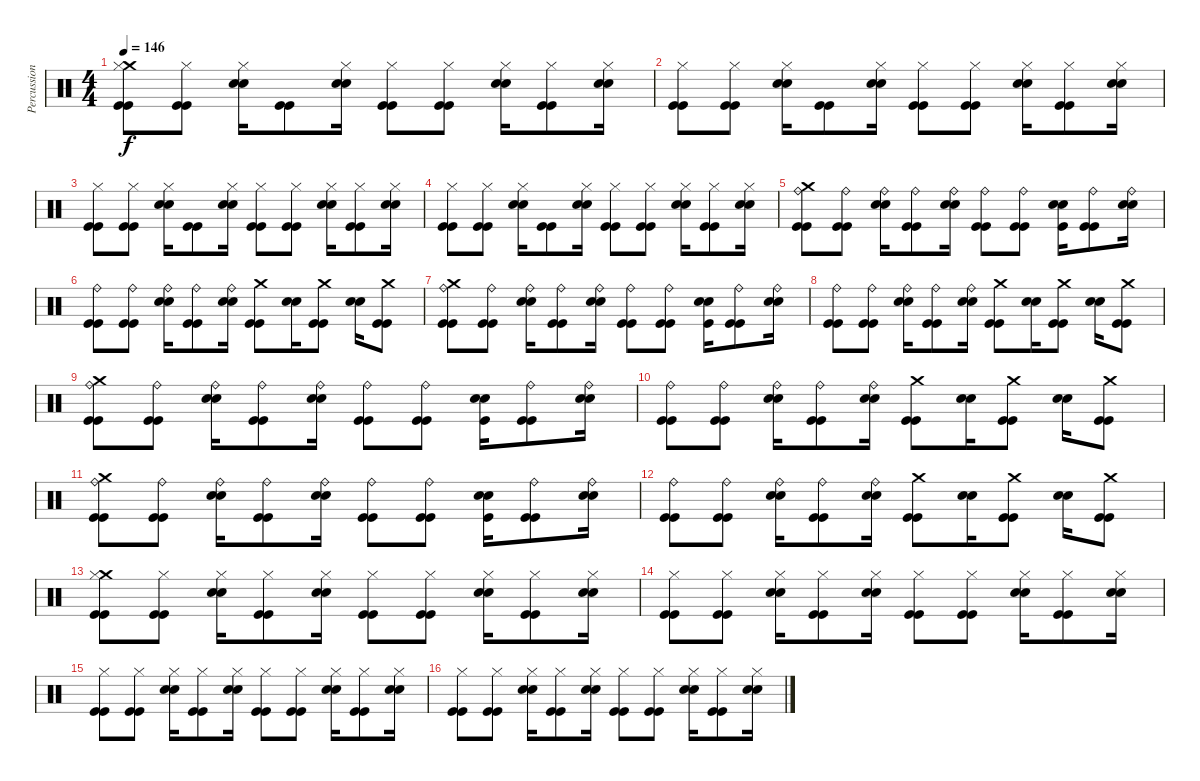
\track ("Percussion" "Percussion") {instrument percussion}
\staff {score}
\articulation defaults
\ts (4 4)
\tempo 146
\clef neutral
\ks c
("Crash medium (hit)" "Hi-Hat (closed)" "Kick (hit)" "Kick (hit)").8{dy f} ("Hi-Hat (closed)" "Kick (hit)" "Kick (hit)").8 ("Snare (hit) 2" "Snare (hit) 2" "Hi-Hat (closed)").16 ("Kick (hit)" "Kick (hit)").8 ("Snare (hit) 2" "Snare (hit) 2" "Hi-Hat (closed)").16 ("Hi-Hat (closed)" "Kick (hit)" "Kick (hit)").8 ("Hi-Hat (closed)" "Kick (hit)" "Kick (hit)").8 ("Snare (hit) 2" "Snare (hit) 2" "Hi-Hat (closed)").16 ("Hi-Hat (closed)" "Kick (hit)" "Kick (hit)").8 ("Snare (hit) 2" "Snare (hit) 2" "Hi-Hat (closed)").16 |
("Hi-Hat (closed)" "Kick (hit)" "Kick (hit)").8 ("Hi-Hat (closed)" "Kick (hit)" "Kick (hit)").8 ("Snare (hit) 2" "Snare (hit) 2" "Hi-Hat (closed)").16 ("Kick (hit)" "Kick (hit)").8 ("Snare (hit) 2" "Snare (hit) 2" "Hi-Hat (closed)").16 ("Hi-Hat (closed)" "Kick (hit)" "Kick (hit)").8 ("Hi-Hat (closed)" "Kick (hit)" "Kick (hit)").8 ("Snare (hit) 2" "Snare (hit) 2" "Hi-Hat (closed)").16 ("Hi-Hat (closed)" "Kick (hit)" "Kick (hit)").8 ("Snare (hit) 2" "Snare (hit) 2" "Hi-Hat (closed)").16 |
("Hi-Hat (closed)" "Kick (hit)" "Kick (hit)").8 ("Hi-Hat (closed)" "Kick (hit)" "Kick (hit)").8 ("Snare (hit) 2" "Snare (hit) 2" "Hi-Hat (closed)").16 ("Kick (hit)" "Kick (hit)").8 ("Snare (hit) 2" "Snare (hit) 2" "Hi-Hat (closed)").16 ("Hi-Hat (closed)" "Kick (hit)" "Kick (hit)").8 ("Hi-Hat (closed)" "Kick (hit)" "Kick (hit)").8 ("Snare (hit) 2" "Snare (hit) 2" "Hi-Hat (closed)").16 ("Hi-Hat (closed)" "Kick (hit)" "Kick (hit)").8 ("Snare (hit) 2" "Snare (hit) 2" "Hi-Hat (closed)").16 |
("Hi-Hat (closed)" "Kick (hit)" "Kick (hit)").8 ("Hi-Hat (closed)" "Kick (hit)" "Kick (hit)").8 ("Snare (hit) 2" "Snare (hit) 2" "Hi-Hat (closed)").16 ("Kick (hit)" "Kick (hit)").8 ("Snare (hit) 2" "Snare (hit) 2" "Hi-Hat (closed)").16 ("Hi-Hat (closed)" "Kick (hit)" "Kick (hit)").8 ("Hi-Hat (closed)" "Kick (hit)" "Kick (hit)").8 ("Snare (hit) 2" "Snare (hit) 2" "Hi-Hat (closed)").16 ("Hi-Hat (closed)" "Kick (hit)" "Kick (hit)").8 ("Snare (hit) 2" "Snare (hit) 2" "Hi-Hat (closed)").16 |
("Crash medium (hit)" "Ride (bell)" "Kick (hit)" "Kick (hit)").8 ("Ride (bell)" "Kick (hit)" "Kick (hit)").8 ("Snare (hit) 2" "Snare (hit) 2" "Ride (bell)").16 ("Ride (bell)" "Kick (hit)" "Kick (hit)").8 ("Snare (hit) 2" "Snare (hit) 2" "Ride (bell)").16 ("Ride (bell)" "Kick (hit)" "Kick (hit)").8 ("Ride (bell)" "Kick (hit)" "Kick (hit)").8 ("Snare (hit) 2" "Snare (hit) 2" "Kick (hit)").16 ("Ride (bell)" "Kick (hit)" "Kick (hit)").8 ("Snare (hit) 2" "Snare (hit) 2" "Ride (bell)").16 |
("Ride (bell)" "Kick (hit)" "Kick (hit)").8 ("Ride (bell)" "Kick (hit)" "Kick (hit)").8 ("Snare (hit) 2" "Snare (hit) 2" "Ride (bell)").16 ("Ride (bell)" "Kick (hit)" "Kick (hit)").8 ("Snare (hit) 2" "Snare (hit) 2" "Ride (bell)").16 ("Crash medium (hit)" "Kick (hit)" "Kick (hit)").8 ("Snare (hit) 2" "Snare (hit) 2").16 ("Crash medium (hit)" "Kick (hit)" "Kick (hit)").8 ("Snare (hit) 2" "Snare (hit) 2").16 ("Crash medium (hit)" "Kick (hit)" "Kick (hit)").8 |
("Crash medium (hit)" "Ride (bell)" "Kick (hit)" "Kick (hit)").8 ("Ride (bell)" "Kick (hit)" "Kick (hit)").8 ("Snare (hit) 2" "Snare (hit) 2" "Ride (bell)").16 ("Ride (bell)" "Kick (hit)" "Kick (hit)").8 ("Snare (hit) 2" "Snare (hit) 2" "Ride (bell)").16 ("Ride (bell)" "Kick (hit)" "Kick (hit)").8 ("Ride (bell)" "Kick (hit)" "Kick (hit)").8 ("Snare (hit) 2" "Snare (hit) 2" "Kick (hit)").16 ("Ride (bell)" "Kick (hit)" "Kick (hit)").8 ("Snare (hit) 2" "Snare (hit) 2" "Ride (bell)").16 |
("Ride (bell)" "Kick (hit)" "Kick (hit)").8 ("Ride (bell)" "Kick (hit)" "Kick (hit)").8 ("Snare (hit) 2" "Snare (hit) 2" "Ride (bell)").16 ("Ride (bell)" "Kick (hit)" "Kick (hit)").8 ("Snare (hit) 2" "Snare (hit) 2" "Ride (bell)").16 ("Crash medium (hit)" "Kick (hit)" "Kick (hit)").8 ("Snare (hit) 2" "Snare (hit) 2").16 ("Crash medium (hit)" "Kick (hit)" "Kick (hit)").8 ("Snare (hit) 2" "Snare (hit) 2").16 ("Crash medium (hit)" "Kick (hit)" "Kick (hit)").8 |
("Crash medium (hit)" "Ride (bell)" "Kick (hit)" "Kick (hit)").8 ("Ride (bell)" "Kick (hit)" "Kick (hit)").8 ("Snare (hit) 2" "Snare (hit) 2" "Ride (bell)").16 ("Ride (bell)" "Kick (hit)" "Kick (hit)").8 ("Snare (hit) 2" "Snare (hit) 2" "Ride (bell)").16 ("Ride (bell)" "Kick (hit)" "Kick (hit)").8 ("Ride (bell)" "Kick (hit)" "Kick (hit)").8 ("Snare (hit) 2" "Snare (hit) 2" "Kick (hit)").16 ("Ride (bell)" "Kick (hit)" "Kick (hit)").8 ("Snare (hit) 2" "Snare (hit) 2" "Ride (bell)").16 |
("Ride (bell)" "Kick (hit)" "Kick (hit)").8 ("Ride (bell)" "Kick (hit)" "Kick (hit)").8 ("Snare (hit) 2" "Snare (hit) 2" "Ride (bell)").16 ("Ride (bell)" "Kick (hit)" "Kick (hit)").8 ("Snare (hit) 2" "Snare (hit) 2" "Ride (bell)").16 ("Crash medium (hit)" "Kick (hit)" "Kick (hit)").8 ("Snare (hit) 2" "Snare (hit) 2").16 ("Crash medium (hit)" "Kick (hit)" "Kick (hit)").8 ("Snare (hit) 2" "Snare (hit) 2").16 ("Crash medium (hit)" "Kick (hit)" "Kick (hit)").8 |
("Crash medium (hit)" "Ride (bell)" "Kick (hit)" "Kick (hit)").8 ("Ride (bell)" "Kick (hit)" "Kick (hit)").8 ("Snare (hit) 2" "Snare (hit) 2" "Ride (bell)").16 ("Ride (bell)" "Kick (hit)" "Kick (hit)").8 ("Snare (hit) 2" "Snare (hit) 2" "Ride (bell)").16 ("Ride (bell)" "Kick (hit)" "Kick (hit)").8 ("Ride (bell)" "Kick (hit)" "Kick (hit)").8 ("Snare (hit) 2" "Snare (hit) 2" "Kick (hit)").16 ("Ride (bell)" "Kick (hit)" "Kick (hit)").8 ("Snare (hit) 2" "Snare (hit) 2" "Ride (bell)").16 |
("Ride (bell)" "Kick (hit)" "Kick (hit)").8 ("Ride (bell)" "Kick (hit)" "Kick (hit)").8 ("Snare (hit) 2" "Snare (hit) 2" "Ride (bell)").16 ("Ride (bell)" "Kick (hit)" "Kick (hit)").8 ("Snare (hit) 2" "Snare (hit) 2" "Ride (bell)").16 ("Crash medium (hit)" "Kick (hit)" "Kick (hit)").8 ("Snare (hit) 2" "Snare (hit) 2").16 ("Crash medium (hit)" "Kick (hit)" "Kick (hit)").8 ("Snare (hit) 2" "Snare (hit) 2").16 ("Crash medium (hit)" "Kick (hit)" "Kick (hit)").8 |
("Crash medium (hit)" "Hi-Hat (closed)" "Kick (hit)" "Kick (hit)").8 ("Hi-Hat (closed)" "Kick (hit)" "Kick (hit)").8 ("Snare (hit) 2" "Snare (hit) 2" "Hi-Hat (closed)").16 ("Hi-Hat (closed)" "Kick (hit)" "Kick (hit)").8 ("Snare (hit) 2" "Snare (hit) 2" "Hi-Hat (closed)").16 ("Hi-Hat (closed)" "Kick (hit)" "Kick (hit)").8 ("Hi-Hat (closed)" "Kick (hit)" "Kick (hit)").8 ("Snare (hit) 2" "Snare (hit) 2" "Hi-Hat (closed)").16 ("Hi-Hat (closed)" "Kick (hit)" "Kick (hit)").8 ("Snare (hit) 2" "Snare (hit) 2" "Hi-Hat (closed)").16 |
("Hi-Hat (closed)" "Kick (hit)" "Kick (hit)").8 ("Hi-Hat (closed)" "Kick (hit)" "Kick (hit)").8 ("Snare (hit) 2" "Snare (hit) 2" "Hi-Hat (closed)").16 ("Hi-Hat (closed)" "Kick (hit)" "Kick (hit)").8 ("Snare (hit) 2" "Snare (hit) 2" "Hi-Hat (closed)").16 ("Hi-Hat (closed)" "Kick (hit)" "Kick (hit)").8 ("Hi-Hat (closed)" "Kick (hit)" "Kick (hit)").8 ("Snare (hit) 2" "Snare (hit) 2" "Hi-Hat (closed)").16 ("Hi-Hat (closed)" "Kick (hit)" "Kick (hit)").8 ("Snare (hit) 2" "Snare (hit) 2" "Hi-Hat (closed)").16 |
("Hi-Hat (closed)" "Kick (hit)" "Kick (hit)").8 ("Hi-Hat (closed)" "Kick (hit)" "Kick (hit)").8 ("Snare (hit) 2" "Snare (hit) 2" "Hi-Hat (closed)").16 ("Hi-Hat (closed)" "Kick (hit)" "Kick (hit)").8 ("Snare (hit) 2" "Snare (hit) 2" "Hi-Hat (closed)").16 ("Hi-Hat (closed)" "Kick (hit)" "Kick (hit)").8 ("Hi-Hat (closed)" "Kick (hit)" "Kick (hit)").8 ("Snare (hit) 2" "Snare (hit) 2" "Hi-Hat (closed)").16 ("Hi-Hat (closed)" "Kick (hit)" "Kick (hit)").8 ("Snare (hit) 2" "Snare (hit) 2" "Hi-Hat (closed)").16 |
("Hi-Hat (closed)" "Kick (hit)" "Kick (hit)").8 ("Hi-Hat (closed)" "Kick (hit)" "Kick (hit)").8 ("Snare (hit) 2" "Snare (hit) 2" "Hi-Hat (closed)").16 ("Hi-Hat (closed)" "Kick (hit)" "Kick (hit)").8 ("Snare (hit) 2" "Snare (hit) 2" "Hi-Hat (closed)").16 ("Hi-Hat (closed)" "Kick (hit)" "Kick (hit)").8 ("Hi-Hat (closed)" "Kick (hit)" "Kick (hit)").8 ("Snare (hit) 2" "Snare (hit) 2" "Hi-Hat (closed)").16 ("Hi-Hat (closed)" "Kick (hit)" "Kick (hit)").8 ("Snare (hit) 2" "Snare (hit) 2" "Hi-Hat (closed)").16
